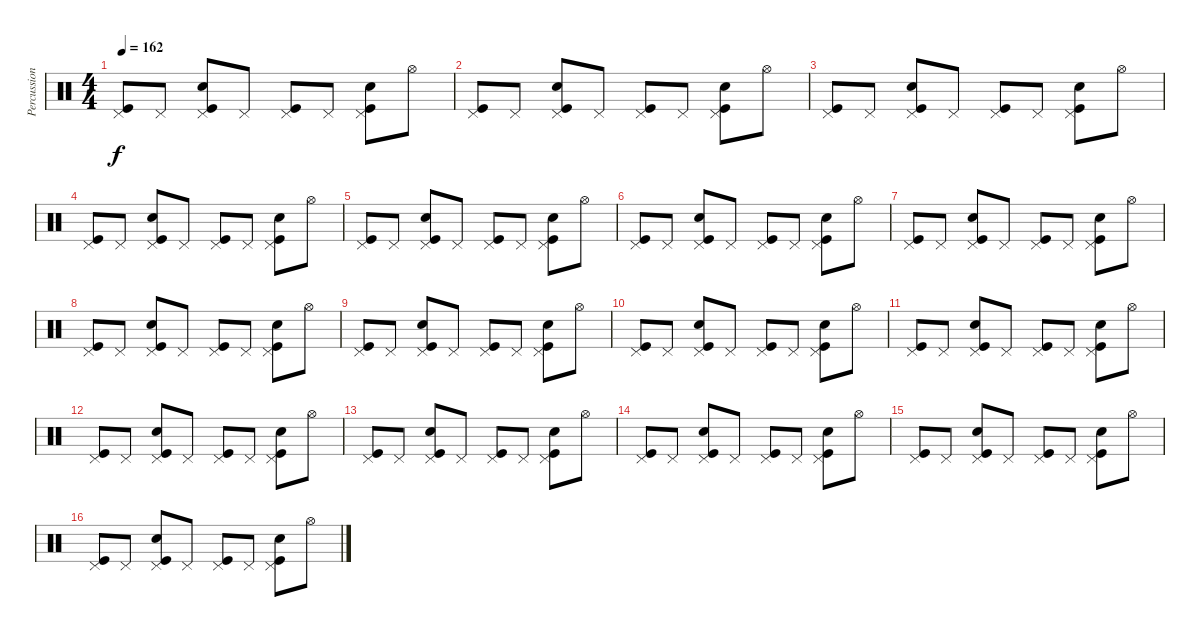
\track ("Percussion" "Percussion") {instrument percussion}
\staff {score}
\articulation defaults
\ts (4 4)
\tempo 162
\clef neutral
\ks c
("Pedal Hi-Hat (hit)" "Kick (hit)").8{dy f} "Pedal Hi-Hat (hit)".8 ("Pedal Hi-Hat (hit)" "Snare (hit) 2" "Kick (hit)").8 "Pedal Hi-Hat (hit)".8 ("Pedal Hi-Hat (hit)" "Kick (hit)").8 "Pedal Hi-Hat (hit)".8 ("Pedal Hi-Hat (hit)" "Snare (hit) 2" "Kick (hit)").8 "Hi-Hat (open)".8 |
("Pedal Hi-Hat (hit)" "Kick (hit)").8 "Pedal Hi-Hat (hit)".8 ("Pedal Hi-Hat (hit)" "Snare (hit) 2" "Kick (hit)").8 "Pedal Hi-Hat (hit)".8 ("Pedal Hi-Hat (hit)" "Kick (hit)").8 "Pedal Hi-Hat (hit)".8 ("Pedal Hi-Hat (hit)" "Snare (hit) 2" "Kick (hit)").8 "Hi-Hat (open)".8 |
("Pedal Hi-Hat (hit)" "Kick (hit)").8 "Pedal Hi-Hat (hit)".8 ("Pedal Hi-Hat (hit)" "Snare (hit) 2" "Kick (hit)").8 "Pedal Hi-Hat (hit)".8 ("Pedal Hi-Hat (hit)" "Kick (hit)").8 "Pedal Hi-Hat (hit)".8 ("Pedal Hi-Hat (hit)" "Snare (hit) 2" "Kick (hit)").8 "Hi-Hat (open)".8 |
("Pedal Hi-Hat (hit)" "Kick (hit)").8 "Pedal Hi-Hat (hit)".8 ("Pedal Hi-Hat (hit)" "Snare (hit) 2" "Kick (hit)").8 "Pedal Hi-Hat (hit)".8 ("Pedal Hi-Hat (hit)" "Kick (hit)").8 "Pedal Hi-Hat (hit)".8 ("Pedal Hi-Hat (hit)" "Snare (hit) 2" "Kick (hit)").8 "Hi-Hat (open)".8 |
("Pedal Hi-Hat (hit)" "Kick (hit)").8 "Pedal Hi-Hat (hit)".8 ("Pedal Hi-Hat (hit)" "Snare (hit) 2" "Kick (hit)").8 "Pedal Hi-Hat (hit)".8 ("Pedal Hi-Hat (hit)" "Kick (hit)").8 "Pedal Hi-Hat (hit)".8 ("Pedal Hi-Hat (hit)" "Snare (hit) 2" "Kick (hit)").8 "Hi-Hat (open)".8 |
("Pedal Hi-Hat (hit)" "Kick (hit)").8 "Pedal Hi-Hat (hit)".8 ("Pedal Hi-Hat (hit)" "Snare (hit) 2" "Kick (hit)").8 "Pedal Hi-Hat (hit)".8 ("Pedal Hi-Hat (hit)" "Kick (hit)").8 "Pedal Hi-Hat (hit)".8 ("Pedal Hi-Hat (hit)" "Snare (hit) 2" "Kick (hit)").8 "Hi-Hat (open)".8 |
("Pedal Hi-Hat (hit)" "Kick (hit)").8 "Pedal Hi-Hat (hit)".8 ("Pedal Hi-Hat (hit)" "Snare (hit) 2" "Kick (hit)").8 "Pedal Hi-Hat (hit)".8 ("Pedal Hi-Hat (hit)" "Kick (hit)").8 "Pedal Hi-Hat (hit)".8 ("Pedal Hi-Hat (hit)" "Snare (hit) 2" "Kick (hit)").8 "Hi-Hat (open)".8 |
("Pedal Hi-Hat (hit)" "Kick (hit)").8 "Pedal Hi-Hat (hit)".8 ("Pedal Hi-Hat (hit)" "Snare (hit) 2" "Kick (hit)").8 "Pedal Hi-Hat (hit)".8 ("Pedal Hi-Hat (hit)" "Kick (hit)").8 "Pedal Hi-Hat (hit)".8 ("Pedal Hi-Hat (hit)" "Snare (hit) 2" "Kick (hit)").8 "Hi-Hat (open)".8 |
("Pedal Hi-Hat (hit)" "Kick (hit)").8 "Pedal Hi-Hat (hit)".8 ("Pedal Hi-Hat (hit)" "Snare (hit) 2" "Kick (hit)").8 "Pedal Hi-Hat (hit)".8 ("Pedal Hi-Hat (hit)" "Kick (hit)").8 "Pedal Hi-Hat (hit)".8 ("Pedal Hi-Hat (hit)" "Snare (hit) 2" "Kick (hit)").8 "Hi-Hat (open)".8 |
("Pedal Hi-Hat (hit)" "Kick (hit)").8 "Pedal Hi-Hat (hit)".8 ("Pedal Hi-Hat (hit)" "Snare (hit) 2" "Kick (hit)").8 "Pedal Hi-Hat (hit)".8 ("Pedal Hi-Hat (hit)" "Kick (hit)").8 "Pedal Hi-Hat (hit)".8 ("Pedal Hi-Hat (hit)" "Snare (hit) 2" "Kick (hit)").8 "Hi-Hat (open)".8 |
("Pedal Hi-Hat (hit)" "Kick (hit)").8 "Pedal Hi-Hat (hit)".8 ("Pedal Hi-Hat (hit)" "Snare (hit) 2" "Kick (hit)").8 "Pedal Hi-Hat (hit)".8 ("Pedal Hi-Hat (hit)" "Kick (hit)").8 "Pedal Hi-Hat (hit)".8 ("Pedal Hi-Hat (hit)" "Snare (hit) 2" "Kick (hit)").8 "Hi-Hat (open)".8 |
("Pedal Hi-Hat (hit)" "Kick (hit)").8 "Pedal Hi-Hat (hit)".8 ("Pedal Hi-Hat (hit)" "Snare (hit) 2" "Kick (hit)").8 "Pedal Hi-Hat (hit)".8 ("Pedal Hi-Hat (hit)" "Kick (hit)").8 "Pedal Hi-Hat (hit)".8 ("Pedal Hi-Hat (hit)" "Snare (hit) 2" "Kick (hit)").8 "Hi-Hat (open)".8 |
("Pedal Hi-Hat (hit)" "Kick (hit)").8 "Pedal Hi-Hat (hit)".8 ("Pedal Hi-Hat (hit)" "Snare (hit) 2" "Kick (hit)").8 "Pedal Hi-Hat (hit)".8 ("Pedal Hi-Hat (hit)" "Kick (hit)").8 "Pedal Hi-Hat (hit)".8 ("Pedal Hi-Hat (hit)" "Snare (hit) 2" "Kick (hit)").8 "Hi-Hat (open)".8 |
("Pedal Hi-Hat (hit)" "Kick (hit)").8 "Pedal Hi-Hat (hit)".8 ("Pedal Hi-Hat (hit)" "Snare (hit) 2" "Kick (hit)").8 "Pedal Hi-Hat (hit)".8 ("Pedal Hi-Hat (hit)" "Kick (hit)").8 "Pedal Hi-Hat (hit)".8 ("Pedal Hi-Hat (hit)" "Snare (hit) 2" "Kick (hit)").8 "Hi-Hat (open)".8 |
("Pedal Hi-Hat (hit)" "Kick (hit)").8 "Pedal Hi-Hat (hit)".8 ("Pedal Hi-Hat (hit)" "Snare (hit) 2" "Kick (hit)").8 "Pedal Hi-Hat (hit)".8 ("Pedal Hi-Hat (hit)" "Kick (hit)").8 "Pedal Hi-Hat (hit)".8 ("Pedal Hi-Hat (hit)" "Snare (hit) 2" "Kick (hit)").8 "Hi-Hat (open)".8 |
("Pedal Hi-Hat (hit)" "Kick (hit)").8 "Pedal Hi-Hat (hit)".8 ("Pedal Hi-Hat (hit)" "Snare (hit) 2" "Kick (hit)").8 "Pedal Hi-Hat (hit)".8 ("Pedal Hi-Hat (hit)" "Kick (hit)").8 "Pedal Hi-Hat (hit)".8 ("Pedal Hi-Hat (hit)" "Snare (hit) 2" "Kick (hit)").8 "Hi-Hat (open)".8
